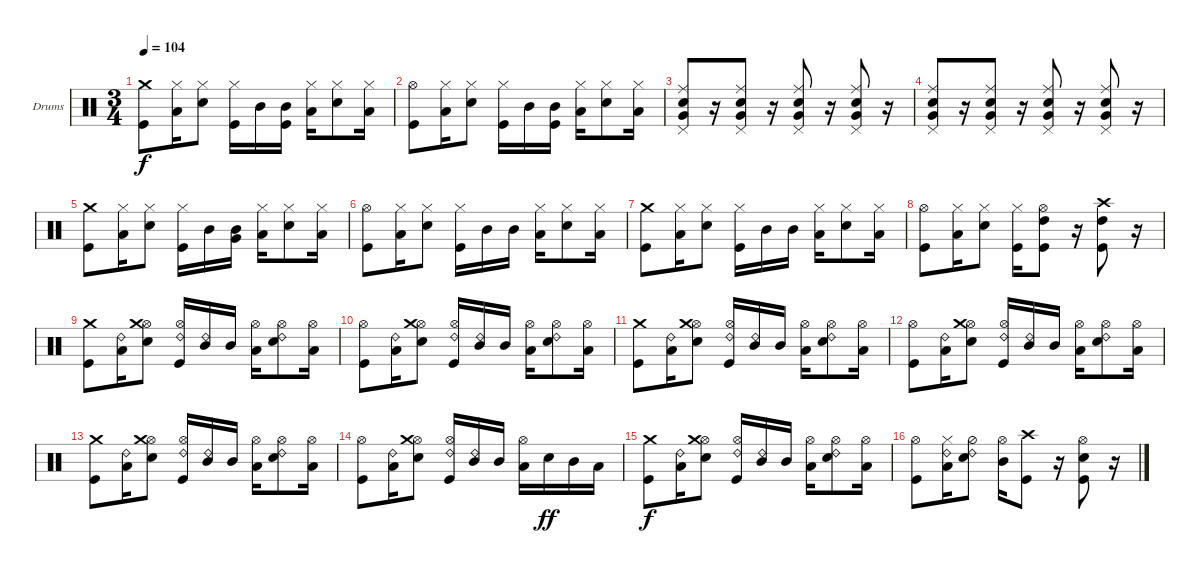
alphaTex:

\bracketExtendMode groupsimilarinstruments
\firstSystemTrackNameOrientation horizontal
\otherSystemsTrackNameOrientation horizontal
\track ("Drumkit" "Drums") {instrument percussion}
\staff {score}
\articulation defaults
\ts (3 4)
\tempo 104
\clef neutral
\ks c
("Kick (hit)" "Crash medium (hit)").8{dy f} ("Hi-Hat (closed)" "Low Tom (hit)").16 ("Snare (hit) 2" "Hi-Hat (closed)").8 ("Hi-Hat (closed)" "Kick (hit)").16 "Mid Tom (hit)".16 ("Mid Tom (hit)" "Kick (hit)").16 ("Hi-Hat (closed)" "Low Tom (hit)").16 ("Snare (hit) 2" "Hi-Hat (closed)").8 ("Hi-Hat (closed)" "Low Tom (hit)").16 |
("Kick (hit)" "Hi-Hat (open)").8 ("Hi-Hat (closed)" "Low Tom (hit)").16 ("Snare (hit) 2" "Hi-Hat (closed)").8 ("Hi-Hat (closed)" "Kick (hit)").16 "Mid Tom (hit)".16 ("Mid Tom (hit)" "Kick (hit)").16 ("Hi-Hat (closed)" "Low Tom (hit)").16 ("Snare (hit) 2" "Hi-Hat (closed)").8 ("Hi-Hat (closed)" "Low Tom (hit)").16 |
("Pedal Hi-Hat (hit)" "Snare (hit) 2" "Ride (middle)" "Very Low Tom (hit)").8 r.16 ("Pedal Hi-Hat (hit)" "Snare (hit) 2" "Ride (middle)" "Very Low Tom (hit)").8 r.16 ("Pedal Hi-Hat (hit)" "Snare (hit) 2" "Ride (middle)" "Very Low Tom (hit)").8 r.16 ("Pedal Hi-Hat (hit)" "Snare (hit) 2" "Ride (middle)" "Very Low Tom (hit)").8 r.16 |
("Pedal Hi-Hat (hit)" "Snare (hit) 2" "Ride (middle)" "Very Low Tom (hit)").8 r.16 ("Pedal Hi-Hat (hit)" "Snare (hit) 2" "Ride (middle)" "Very Low Tom (hit)").8 r.16 ("Pedal Hi-Hat (hit)" "Snare (hit) 2" "Ride (middle)" "Very Low Tom (hit)").8 r.16 ("Pedal Hi-Hat (hit)" "Snare (hit) 2" "Ride (middle)" "Very Low Tom (hit)").8 r.16 |
("Kick (hit)" "Crash medium (hit)").8 ("Hi-Hat (closed)" "Low Tom (hit)").16 ("Snare (hit) 2" "Hi-Hat (closed)").8 ("Hi-Hat (closed)" "Kick (hit)").16 "Mid Tom (hit)".16 ("Mid Tom (hit)" "Very Low Tom (hit)").16 ("Hi-Hat (closed)" "Low Tom (hit)").16 ("Snare (hit) 2" "Hi-Hat (closed)").8 ("Hi-Hat (closed)" "Low Tom (hit)").16 |
("Kick (hit)" "Hi-Hat (open)").8 ("Hi-Hat (closed)" "Low Tom (hit)").16 ("Snare (hit) 2" "Hi-Hat (closed)").8 ("Hi-Hat (closed)" "Kick (hit)").16 "Mid Tom (hit)".16 "Mid Tom (hit)".16 ("Hi-Hat (closed)" "Low Tom (hit)").16 ("Snare (hit) 2" "Hi-Hat (closed)").8 ("Hi-Hat (closed)" "Low Tom (hit)").16 |
("Kick (hit)" "Crash medium (hit)").8 ("Hi-Hat (closed)" "Low Tom (hit)").16 ("Snare (hit) 2" "Hi-Hat (closed)").8 ("Hi-Hat (closed)" "Kick (hit)").16 "Mid Tom (hit)".16 "Mid Tom (hit)".16 ("Hi-Hat (closed)" "Low Tom (hit)").16 ("Snare (hit) 2" "Hi-Hat (closed)").8 ("Hi-Hat (closed)" "Low Tom (hit)").16 |
("Kick (hit)" "Hi-Hat (open)").8 ("Hi-Hat (closed)" "Low Tom (hit)").16 ("Snare (hit) 2" "Hi-Hat (closed)").8 ("Hi-Hat (closed)" "Kick (hit)").16 ("Kick (hit)" "Hi-Hat (open)" "High Tom (hit)").8 r.16 ("Kick (hit)" "High Tom (hit)" "Crash high (hit)").8 r.16 |
("Kick (hit)" "Crash medium (hit)").8 ("Low Tom (hit)" "Ride (bell) 2").16 ("Snare (hit) 2" "Hi-Hat (open)" "Crash medium (hit)").8 ("Hi-Hat (open)" "Kick (hit)" "Ride (bell) 2").16 ("Mid Tom (hit)" "Ride (bell) 2").16 "Mid Tom (hit)".16 ("Hi-Hat (open)" "Low Tom (hit)").16 ("Snare (hit) 2" "Hi-Hat (open)" "Ride (bell) 2").8 ("Hi-Hat (open)" "Low Tom (hit)").16 |
("Kick (hit)" "Hi-Hat (open)").8 ("Low Tom (hit)" "Ride (bell) 2").16 ("Snare (hit) 2" "Hi-Hat (open)" "Crash medium (hit)").8 ("Hi-Hat (open)" "Kick (hit)" "Ride (bell) 2").16 ("Mid Tom (hit)" "Ride (bell) 2").16 "Mid Tom (hit)".16 ("Hi-Hat (open)" "Low Tom (hit)").16 ("Snare (hit) 2" "Hi-Hat (open)" "Ride (bell) 2").8 ("Hi-Hat (open)" "Low Tom (hit)").16 |
("Kick (hit)" "Crash medium (hit)").8 ("Low Tom (hit)" "Ride (bell) 2").16 ("Snare (hit) 2" "Hi-Hat (open)" "Crash medium (hit)").8 ("Hi-Hat (open)" "Kick (hit)" "Ride (bell) 2").16 ("Mid Tom (hit)" "Ride (bell) 2").16 "Mid Tom (hit)".16 ("Hi-Hat (open)" "Low Tom (hit)").16 ("Snare (hit) 2" "Hi-Hat (open)" "Ride (bell) 2").8 ("Hi-Hat (open)" "Low Tom (hit)").16 |
("Kick (hit)" "Hi-Hat (open)").8 ("Low Tom (hit)" "Ride (bell) 2").16 ("Snare (hit) 2" "Hi-Hat (open)" "Crash medium (hit)").8 ("Hi-Hat (open)" "Kick (hit)" "Ride (bell) 2").16 ("Mid Tom (hit)" "Ride (bell) 2").16 "Mid Tom (hit)".16 ("Hi-Hat (open)" "Low Tom (hit)").16 ("Snare (hit) 2" "Hi-Hat (open)" "Ride (bell) 2").8 ("Hi-Hat (open)" "Low Tom (hit)").16 |
("Kick (hit)" "Crash medium (hit)").8 ("Low Tom (hit)" "Ride (bell) 2").16 ("Snare (hit) 2" "Hi-Hat (open)" "Crash medium (hit)").8 ("Hi-Hat (open)" "Kick (hit)" "Ride (bell) 2").16 ("Mid Tom (hit)" "Ride (bell) 2").16 "Mid Tom (hit)".16 ("Hi-Hat (open)" "Low Tom (hit)").16 ("Snare (hit) 2" "Hi-Hat (open)" "Ride (bell) 2").8 ("Hi-Hat (open)" "Low Tom (hit)").16 |
("Kick (hit)" "Hi-Hat (open)").8 ("Low Tom (hit)" "Ride (bell) 2").16 ("Snare (hit) 2" "Hi-Hat (open)" "Crash medium (hit)").8 ("Hi-Hat (open)" "Kick (hit)" "Ride (bell) 2").16 ("Mid Tom (hit)" "Ride (bell) 2").16 "Mid Tom (hit)".16 ("Hi-Hat (open)" "Low Tom (hit)").16 "Snare (hit) 2".16{dy ff} "Mid Tom (hit)".16 "Low Tom (hit)".16 |
("Kick (hit)" "Crash medium (hit)").8{dy f} ("Low Tom (hit)" "Ride (bell) 2").16 ("Snare (hit) 2" "Hi-Hat (open)" "Crash medium (hit)").8 ("Hi-Hat (open)" "Kick (hit)" "Ride (bell) 2").16 ("Mid Tom (hit)" "Ride (bell) 2").16 "Mid Tom (hit)".16 ("Hi-Hat (open)" "Low Tom (hit)").16 ("Snare (hit) 2" "Hi-Hat (open)" "Ride (bell) 2").8 ("Hi-Hat (open)" "Low Tom (hit)").16 |
("Kick (hit)" "Hi-Hat (open)").8 ("Hi-Hat (closed)" "Low Tom (hit)" "Ride (bell) 2").16 ("Snare (hit) 2" "Hi-Hat (half)" "Ride (bell) 2").8 ("Hi-Hat (open)" "Mid Tom (hit)").16 ("Kick (hit)" "Crash high (hit)").8 r.16 ("Kick (hit)" "Hi-Hat (open)" "Snare (hit) 2").8 r.16
